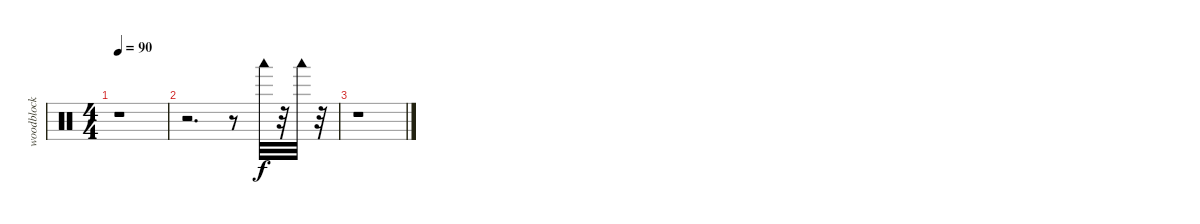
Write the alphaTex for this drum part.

\track ("woodblock" "woodblock") {instrument percussion}
\staff {score}
\articulation defaults
\ts (4 4)
\tempo 90
\clef neutral
\ks c
r.1{dy f} |
r.2{d} r.8 "Woodblock low (hit)".32 r.32 "Woodblock low (hit)".32 r.32 |
r.1
